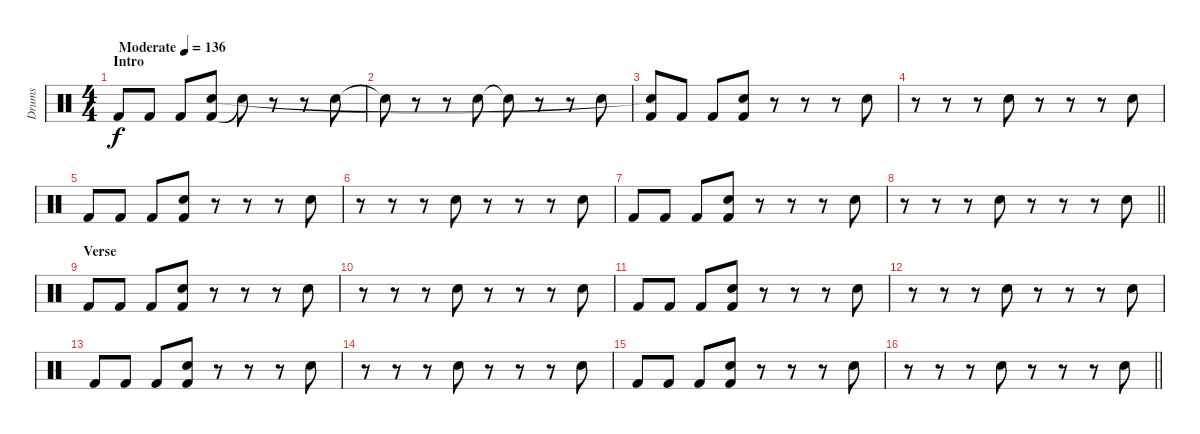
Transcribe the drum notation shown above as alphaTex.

\track ("Drums" "Drums") {instrument percussion}
\staff {score}
\articulation defaults
\ts (4 4)
\section ("" "Intro")
\tempo (136 "Moderate")
\clef neutral
\ks c "Kick (hit) 2".8{dy f} "Kick (hit) 2".8 "Kick (hit) 2".8
("Kick (hit) 2" "Snare (hit) 2").8 "Snare (hit)"{t}.8 r.8 r.8 "Snare (hit) 2".8 |
"Snare (hit)"{t}.8 r.8 r.8 "Snare (hit) 2".8 "Snare (hit)"{t}.8 r.8 r.8 "Snare (hit) 2".8 |
("Kick (hit) 2" "Snare (hit)"{t}).8 "Kick (hit) 2".8 "Kick (hit) 2".8 ("Kick (hit) 2" "Snare (hit) 2").8 r.8 r.8 r.8 "Snare (hit) 2".8 |
r.8 r.8 r.8 "Snare (hit) 2".8 r.8 r.8 r.8 "Snare (hit) 2".8 |
"Kick (hit) 2".8 "Kick (hit) 2".8 "Kick (hit) 2".8 ("Kick (hit) 2" "Snare (hit) 2").8 r.8 r.8 r.8 "Snare (hit) 2".8 |
r.8 r.8 r.8 "Snare (hit) 2".8 r.8 r.8 r.8 "Snare (hit) 2".8 |
"Kick (hit) 2".8 "Kick (hit) 2".8 "Kick (hit) 2".8 ("Kick (hit) 2" "Snare (hit) 2").8 r.8 r.8 r.8 "Snare (hit) 2".8 |
\barLineRight lightlight
r.8 r.8 r.8 "Snare (hit) 2".8 r.8 r.8 r.8 "Snare (hit) 2".8 |
\section ("" "Verse")
"Kick (hit) 2".8 "Kick (hit) 2".8 "Kick (hit) 2".8 ("Kick (hit) 2" "Snare (hit) 2").8 r.8 r.8 r.8 "Snare (hit) 2".8 |
r.8 r.8 r.8 "Snare (hit) 2".8 r.8 r.8 r.8 "Snare (hit) 2".8 |
"Kick (hit) 2".8 "Kick (hit) 2".8 "Kick (hit) 2".8 ("Kick (hit) 2" "Snare (hit) 2").8 r.8 r.8 r.8 "Snare (hit) 2".8 |
r.8 r.8 r.8 "Snare (hit) 2".8 r.8 r.8 r.8 "Snare (hit) 2".8 |
"Kick (hit) 2".8 "Kick (hit) 2".8 "Kick (hit) 2".8 ("Kick (hit) 2" "Snare (hit) 2").8 r.8 r.8 r.8 "Snare (hit) 2".8 |
r.8 r.8 r.8 "Snare (hit) 2".8 r.8 r.8 r.8 "Snare (hit) 2".8 |
"Kick (hit) 2".8 "Kick (hit) 2".8 "Kick (hit) 2".8 ("Kick (hit) 2" "Snare (hit) 2").8 r.8 r.8 r.8 "Snare (hit) 2".8 |
\barLineRight lightlight
r.8 r.8 r.8 "Snare (hit) 2".8 r.8 r.8 r.8 "Snare (hit) 2".8
